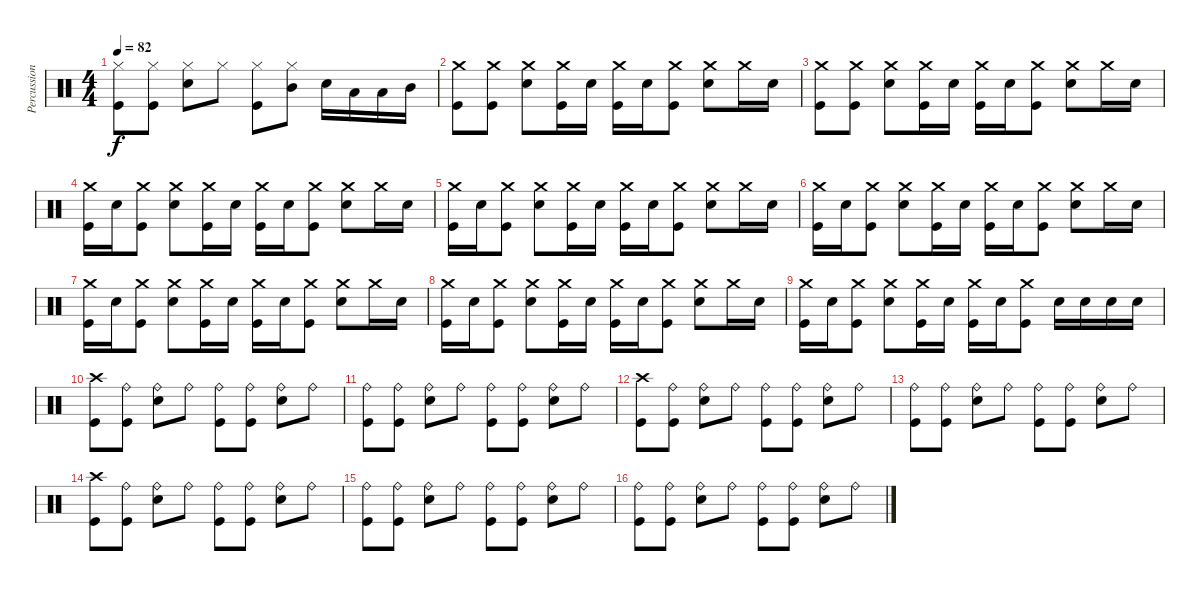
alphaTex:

\track ("Percussioni" "Percussion") {instrument percussion}
\staff {score}
\articulation defaults
\ts (4 4)
\tempo 82
\clef neutral
\ks c
("Hi-Hat (closed)" "Kick (hit)").8{dy f} ("Hi-Hat (closed)" "Kick (hit)").8 ("Hi-Hat (closed)" "Snare (hit) 2").8 "Hi-Hat (closed)".8 ("Hi-Hat (closed)" "Kick (hit)").8 ("Hi-Hat (closed)" "Mid Tom (hit)").8 "Snare (hit) 2".16 "Low Tom (hit)".16 "Low Tom (hit)".16 "Mid Tom (hit)".16 |
("Crash medium (hit)" "Kick (hit)").8 ("Crash medium (hit)" "Kick (hit)").8 ("Crash medium (hit)" "Snare (hit) 2").8 ("Crash medium (hit)" "Kick (hit)").16 "Snare (hit) 2".16 ("Crash medium (hit)" "Kick (hit)").16 "Snare (hit) 2".16 ("Crash medium (hit)" "Kick (hit)").8 ("Crash medium (hit)" "Snare (hit) 2").8 "Crash medium (hit)".16 "Snare (hit) 2".16 |
("Crash medium (hit)" "Kick (hit)").8 ("Crash medium (hit)" "Kick (hit)").8 ("Crash medium (hit)" "Snare (hit) 2").8 ("Crash medium (hit)" "Kick (hit)").16 "Snare (hit) 2".16 ("Crash medium (hit)" "Kick (hit)").16 "Snare (hit) 2".16 ("Crash medium (hit)" "Kick (hit)").8 ("Crash medium (hit)" "Snare (hit) 2").8 "Crash medium (hit)".16 "Snare (hit) 2".16 |
("Crash medium (hit)" "Kick (hit)").16 "Snare (hit) 2".16 ("Crash medium (hit)" "Kick (hit)").8 ("Crash medium (hit)" "Snare (hit) 2").8 ("Crash medium (hit)" "Kick (hit)").16 "Snare (hit) 2".16 ("Crash medium (hit)" "Kick (hit)").16 "Snare (hit) 2".16 ("Crash medium (hit)" "Kick (hit)").8 ("Crash medium (hit)" "Snare (hit) 2").8 "Crash medium (hit)".16 "Snare (hit) 2".16 |
("Crash medium (hit)" "Kick (hit)").16 "Snare (hit) 2".16 ("Crash medium (hit)" "Kick (hit)").8 ("Crash medium (hit)" "Snare (hit) 2").8 ("Crash medium (hit)" "Kick (hit)").16 "Snare (hit) 2".16 ("Crash medium (hit)" "Kick (hit)").16 "Snare (hit) 2".16 ("Crash medium (hit)" "Kick (hit)").8 ("Crash medium (hit)" "Snare (hit) 2").8 "Crash medium (hit)".16 "Snare (hit) 2".16 |
("Crash medium (hit)" "Kick (hit)").16 "Snare (hit) 2".16 ("Crash medium (hit)" "Kick (hit)").8 ("Crash medium (hit)" "Snare (hit) 2").8 ("Crash medium (hit)" "Kick (hit)").16 "Snare (hit) 2".16 ("Crash medium (hit)" "Kick (hit)").16 "Snare (hit) 2".16 ("Crash medium (hit)" "Kick (hit)").8 ("Crash medium (hit)" "Snare (hit) 2").8 "Crash medium (hit)".16 "Snare (hit) 2".16 |
("Crash medium (hit)" "Kick (hit)").16 "Snare (hit) 2".16 ("Crash medium (hit)" "Kick (hit)").8 ("Crash medium (hit)" "Snare (hit) 2").8 ("Crash medium (hit)" "Kick (hit)").16 "Snare (hit) 2".16 ("Crash medium (hit)" "Kick (hit)").16 "Snare (hit) 2".16 ("Crash medium (hit)" "Kick (hit)").8 ("Crash medium (hit)" "Snare (hit) 2").8 "Crash medium (hit)".16 "Snare (hit) 2".16 |
("Crash medium (hit)" "Kick (hit)").16 "Snare (hit) 2".16 ("Crash medium (hit)" "Kick (hit)").8 ("Crash medium (hit)" "Snare (hit) 2").8 ("Crash medium (hit)" "Kick (hit)").16 "Snare (hit) 2".16 ("Crash medium (hit)" "Kick (hit)").16 "Snare (hit) 2".16 ("Crash medium (hit)" "Kick (hit)").8 ("Crash medium (hit)" "Snare (hit) 2").8 "Crash medium (hit)".16 "Snare (hit) 2".16 |
("Crash medium (hit)" "Kick (hit)").16 "Snare (hit) 2".16 ("Crash medium (hit)" "Kick (hit)").8 ("Crash medium (hit)" "Snare (hit) 2").8 ("Crash medium (hit)" "Kick (hit)").16 "Snare (hit) 2".16 ("Crash medium (hit)" "Kick (hit)").16 "Snare (hit) 2".16 ("Crash medium (hit)" "Kick (hit)").8 "Snare (hit) 2".16 "Snare (hit) 2".16 "Snare (hit) 2".16 "Snare (hit) 2".16 |
("Crash high (hit)" "Kick (hit)").8 ("Ride (bell)" "Kick (hit)").8 ("Ride (bell)" "Snare (hit) 2").8 "Ride (bell)".8 ("Ride (bell)" "Kick (hit)").8 ("Ride (bell)" "Kick (hit)").8 ("Ride (bell)" "Snare (hit) 2").8 "Ride (bell)".8 |
("Ride (bell)" "Kick (hit)").8 ("Ride (bell)" "Kick (hit)").8 ("Ride (bell)" "Snare (hit) 2").8 "Ride (bell)".8 ("Ride (bell)" "Kick (hit)").8 ("Ride (bell)" "Kick (hit)").8 ("Ride (bell)" "Snare (hit) 2").8 "Ride (bell)".8 |
("Crash high (hit)" "Kick (hit)").8 ("Ride (bell)" "Kick (hit)").8 ("Ride (bell)" "Snare (hit) 2").8 "Ride (bell)".8 ("Ride (bell)" "Kick (hit)").8 ("Ride (bell)" "Kick (hit)").8 ("Ride (bell)" "Snare (hit) 2").8 "Ride (bell)".8 |
("Ride (bell)" "Kick (hit)").8 ("Ride (bell)" "Kick (hit)").8 ("Ride (bell)" "Snare (hit) 2").8 "Ride (bell)".8 ("Ride (bell)" "Kick (hit)").8 ("Ride (bell)" "Kick (hit)").8 ("Ride (bell)" "Snare (hit) 2").8 "Ride (bell)".8 |
("Crash high (hit)" "Kick (hit)").8 ("Ride (bell)" "Kick (hit)").8 ("Ride (bell)" "Snare (hit) 2").8 "Ride (bell)".8 ("Ride (bell)" "Kick (hit)").8 ("Ride (bell)" "Kick (hit)").8 ("Ride (bell)" "Snare (hit) 2").8 "Ride (bell)".8 |
("Ride (bell)" "Kick (hit)").8 ("Ride (bell)" "Kick (hit)").8 ("Ride (bell)" "Snare (hit) 2").8 "Ride (bell)".8 ("Ride (bell)" "Kick (hit)").8 ("Ride (bell)" "Kick (hit)").8 ("Ride (bell)" "Snare (hit) 2").8 "Ride (bell)".8 |
("Ride (bell)" "Kick (hit)").8 ("Ride (bell)" "Kick (hit)").8 ("Ride (bell)" "Snare (hit) 2").8 "Ride (bell)".8 ("Ride (bell)" "Kick (hit)").8 ("Ride (bell)" "Kick (hit)").8 ("Ride (bell)" "Snare (hit) 2").8 "Ride (bell)".8
